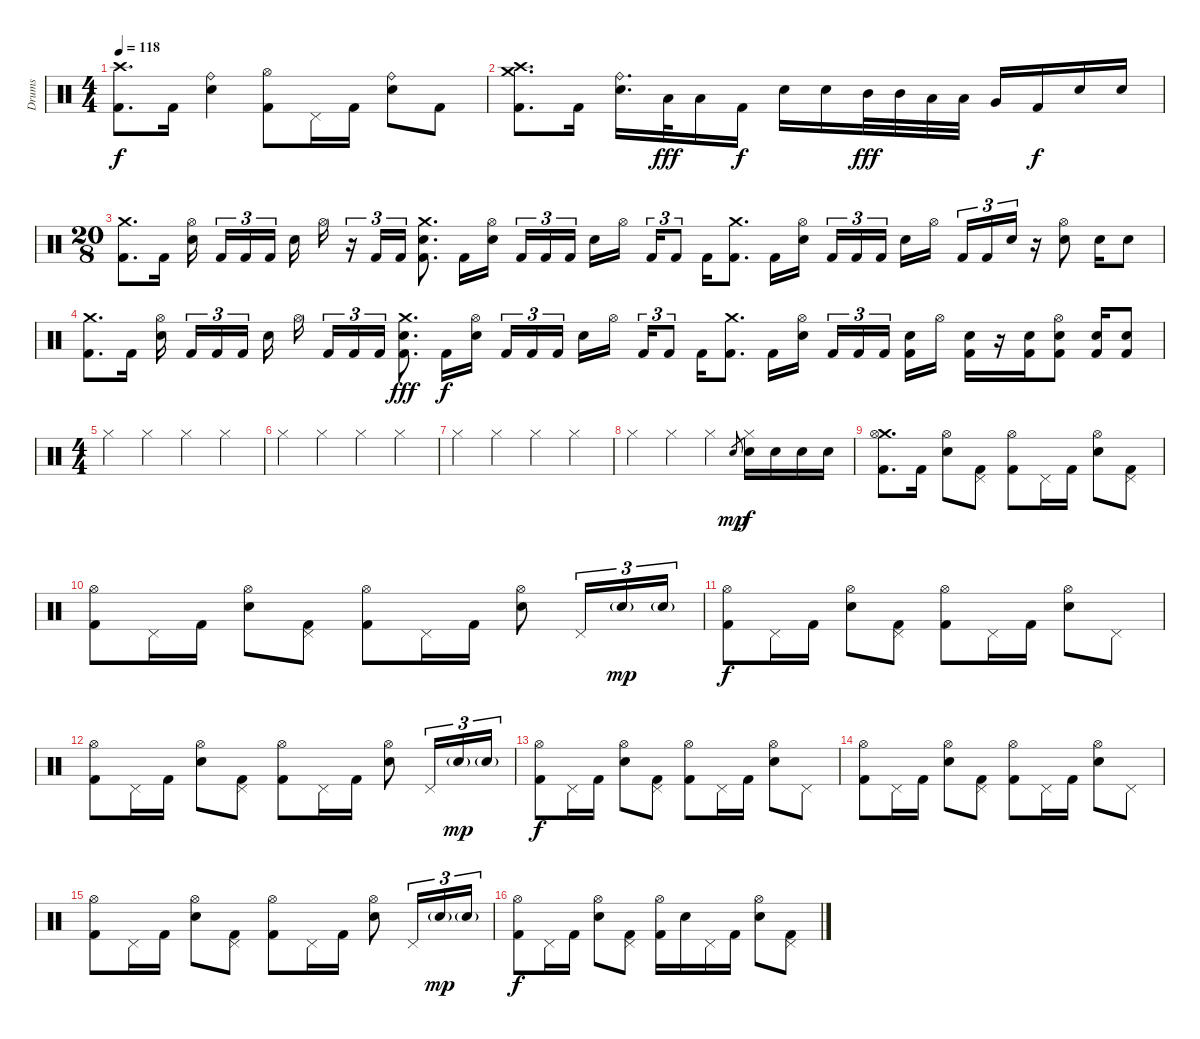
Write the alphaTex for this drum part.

\track ("Drums" "Drums") {instrument percussion}
\staff {score}
\articulation defaults
\ts (4 4)
\tempo 118
\clef neutral
\ks c
("Crash high (hit)" "Kick (hit) 2").8{d dy f} "Kick (hit) 2".16 ("Ride (bell)" "Electric Snare (hit)").4 ("Hi-Hat (open)" "Kick (hit) 2").8 "Pedal Hi-Hat (hit)".16 "Kick (hit) 2".16 ("Ride (bell)" "Electric Snare (hit)").8 "Kick (hit) 2".8 |
("Crash medium (hit)" "Crash high (hit)" "Kick (hit) 2").8{d} "Kick (hit) 2".16 ("Ride (bell)" "Electric Snare (hit)").16{d} "Low Tom (hit)".32{dy fff} "Low Tom (hit)".16 "Kick (hit) 2".16{dy f} "Electric Snare (hit)".16 "Electric Snare (hit)".16 "Mid Tom (hit)".32{dy fff} "Mid Tom (hit)".32 "Low Tom (hit)".32 "Low Tom (hit)".32 "Very Low Tom (hit)".16 "Kick (hit) 2".16{dy f} "Electric Snare (hit)".16 "Electric Snare (hit)".16 |
\ts (20 8)
("Crash medium (hit)" "Kick (hit) 2").8{d} "Kick (hit) 2".16 ("Hi-Hat (open)" "Electric Snare (hit)").16{beam splitsecondary} "Kick (hit) 2".16{tu (3 2)} "Kick (hit) 2".16{tu (3 2)} "Kick (hit) 2".16{tu (3 2)} "Electric Snare (hit)".16 "Hi-Hat (open)".16 r.16{tu (3 2)} "Kick (hit) 2".16{tu (3 2)} "Kick (hit) 2".16{tu (3 2)} ("Crash medium (hit)" "Electric Snare (hit)" "Kick (hit) 2").8{d} "Kick (hit) 2".16 ("Hi-Hat (open)" "Electric Snare (hit)").16 "Kick (hit) 2".16{tu (3 2)} "Kick (hit) 2".16{tu (3 2)} "Kick (hit) 2".16{tu (3 2)} "Electric Snare (hit)".16 "Hi-Hat (open)".16 "Kick (hit) 2".16{tu (3 2)} "Kick (hit) 2".8{tu (3 2)} "Kick (hit) 2".16 ("Crash medium (hit)" "Kick (hit) 2").8{d} "Kick (hit) 2".16 ("Hi-Hat (open)" "Electric Snare (hit)").16 "Kick (hit) 2".16{tu (3 2)} "Kick (hit) 2".16{tu (3 2)} "Kick (hit) 2".16{tu (3 2)} "Electric Snare (hit)".16 "Hi-Hat (open)".16 "Kick (hit) 2".16{tu (3 2)} "Kick (hit) 2".16{tu (3 2)} "Electric Snare (hit)".16{tu (3 2)} r.16 ("Hi-Hat (open)" "Electric Snare (hit)").8 "Electric Snare (hit)".16 "Electric Snare (hit)".8 |
("Crash medium (hit)" "Kick (hit) 2").8{d} "Kick (hit) 2".16 ("Hi-Hat (open)" "Electric Snare (hit)").16{beam splitsecondary} "Kick (hit) 2".16{tu (3 2)} "Kick (hit) 2".16{tu (3 2)} "Kick (hit) 2".16{tu (3 2)} "Electric Snare (hit)".16 "Hi-Hat (open)".16{beam splitsecondary} "Kick (hit) 2".16{tu (3 2)} "Kick (hit) 2".16{tu (3 2)} "Kick (hit) 2".16{tu (3 2)} ("Crash medium (hit)" "Electric Snare (hit)" "Kick (hit) 2").8{d dy fff} "Kick (hit) 2".16{dy f} ("Hi-Hat (open)" "Electric Snare (hit)").16 "Kick (hit) 2".16{tu (3 2)} "Kick (hit) 2".16{tu (3 2)} "Kick (hit) 2".16{tu (3 2)} "Electric Snare (hit)".16 "Hi-Hat (open)".16 "Kick (hit) 2".16{tu (3 2)} "Kick (hit) 2".8{tu (3 2)} "Kick (hit) 2".16 ("Crash medium (hit)" "Kick (hit) 2").8{d} "Kick (hit) 2".16 ("Hi-Hat (open)" "Electric Snare (hit)").16 "Kick (hit) 2".16{tu (3 2)} "Kick (hit) 2".16{tu (3 2)} "Kick (hit) 2".16{tu (3 2)} ("Electric Snare (hit)" "Kick (hit) 2").16 "Hi-Hat (open)".16 ("Electric Snare (hit)" "Kick (hit) 2").16 r.16 ("Electric Snare (hit)" "Kick (hit) 2").16 ("Hi-Hat (open)" "Electric Snare (hit)" "Kick (hit) 2").8 ("Electric Snare (hit)" "Kick (hit) 2").16 ("Electric Snare (hit)" "Kick (hit) 2").8 |
\ts (4 4)
"Hi-Hat (closed)".4 "Hi-Hat (closed)".4 "Hi-Hat (closed)".4 "Hi-Hat (closed)".4 |
"Hi-Hat (closed)".4 "Hi-Hat (closed)".4 "Hi-Hat (closed)".4 "Hi-Hat (closed)".4 |
"Hi-Hat (closed)".4 "Hi-Hat (closed)".4 "Hi-Hat (closed)".4 "Hi-Hat (closed)".4 |
"Hi-Hat (closed)".4 "Hi-Hat (closed)".4 "Hi-Hat (closed)".4 "Electric Snare (hit)".8{gr dy mp} ("Hi-Hat (closed)" "Electric Snare (hit)").16{dy f} "Electric Snare (hit)".16 "Electric Snare (hit)".16 "Electric Snare (hit)".16 |
("Crash medium (hit)" "Hi-Hat (open)" "Kick (hit) 2").8{d} "Kick (hit) 2".16 ("Hi-Hat (open)" "Electric Snare (hit)").8 ("Pedal Hi-Hat (hit)" "Kick (hit) 2").8 ("Hi-Hat (open)" "Kick (hit) 2").8 "Pedal Hi-Hat (hit)".16 "Kick (hit) 2".16 ("Hi-Hat (open)" "Electric Snare (hit)").8 ("Pedal Hi-Hat (hit)" "Kick (hit) 2").8 |
("Hi-Hat (open)" "Kick (hit) 2").8 "Pedal Hi-Hat (hit)".16 "Kick (hit) 2".16 ("Hi-Hat (open)" "Electric Snare (hit)").8 ("Pedal Hi-Hat (hit)" "Kick (hit) 2").8 ("Hi-Hat (open)" "Kick (hit) 2").8 "Pedal Hi-Hat (hit)".16 "Kick (hit) 2".16 ("Hi-Hat (open)" "Electric Snare (hit)").8 "Pedal Hi-Hat (hit)".16{tu (3 2)} "Electric Snare (hit)"{g}.16{tu (3 2) dy mp} "Electric Snare (hit)"{g}.16{tu (3 2)} |
("Hi-Hat (open)" "Kick (hit) 2").8{dy f} "Pedal Hi-Hat (hit)".16 "Kick (hit) 2".16 ("Hi-Hat (open)" "Electric Snare (hit)").8 ("Pedal Hi-Hat (hit)" "Kick (hit) 2").8 ("Hi-Hat (open)" "Kick (hit) 2").8 "Pedal Hi-Hat (hit)".16 "Kick (hit) 2".16 ("Hi-Hat (open)" "Electric Snare (hit)").8 "Pedal Hi-Hat (hit)".8 |
("Hi-Hat (open)" "Kick (hit) 2").8 "Pedal Hi-Hat (hit)".16 "Kick (hit) 2".16 ("Hi-Hat (open)" "Electric Snare (hit)").8 ("Pedal Hi-Hat (hit)" "Kick (hit) 2").8 ("Hi-Hat (open)" "Kick (hit) 2").8 "Pedal Hi-Hat (hit)".16 "Kick (hit) 2".16 ("Hi-Hat (open)" "Electric Snare (hit)").8 "Pedal Hi-Hat (hit)".16{tu (3 2)} "Electric Snare (hit)"{g}.16{tu (3 2) dy mp} "Electric Snare (hit)"{g}.16{tu (3 2)} |
("Hi-Hat (open)" "Kick (hit) 2").8{dy f} "Pedal Hi-Hat (hit)".16 "Kick (hit) 2".16 ("Hi-Hat (open)" "Electric Snare (hit)").8 ("Pedal Hi-Hat (hit)" "Kick (hit) 2").8 ("Hi-Hat (open)" "Kick (hit) 2").8 "Pedal Hi-Hat (hit)".16 "Kick (hit) 2".16 ("Hi-Hat (open)" "Electric Snare (hit)").8 "Pedal Hi-Hat (hit)".8 |
("Hi-Hat (open)" "Kick (hit) 2").8 "Pedal Hi-Hat (hit)".16 "Kick (hit) 2".16 ("Hi-Hat (open)" "Electric Snare (hit)").8 ("Pedal Hi-Hat (hit)" "Kick (hit) 2").8 ("Hi-Hat (open)" "Kick (hit) 2").8 "Pedal Hi-Hat (hit)".16 "Kick (hit) 2".16 ("Hi-Hat (open)" "Electric Snare (hit)").8 "Pedal Hi-Hat (hit)".8 |
("Hi-Hat (open)" "Kick (hit) 2").8 "Pedal Hi-Hat (hit)".16 "Kick (hit) 2".16 ("Hi-Hat (open)" "Electric Snare (hit)").8 ("Pedal Hi-Hat (hit)" "Kick (hit) 2").8 ("Hi-Hat (open)" "Kick (hit) 2").8 "Pedal Hi-Hat (hit)".16 "Kick (hit) 2".16 ("Hi-Hat (open)" "Electric Snare (hit)").8 "Pedal Hi-Hat (hit)".16{tu (3 2)} "Electric Snare (hit)"{g}.16{tu (3 2) dy mp} "Electric Snare (hit)"{g}.16{tu (3 2)} |
("Hi-Hat (open)" "Kick (hit) 2").8{dy f} "Pedal Hi-Hat (hit)".16 "Kick (hit) 2".16 ("Hi-Hat (open)" "Electric Snare (hit)").8 ("Pedal Hi-Hat (hit)" "Kick (hit) 2").8 ("Hi-Hat (open)" "Kick (hit) 2").16 "Electric Snare (hit)".16 "Pedal Hi-Hat (hit)".16 "Kick (hit) 2".16 ("Hi-Hat (open)" "Electric Snare (hit)").8 ("Pedal Hi-Hat (hit)" "Kick (hit) 2").8
